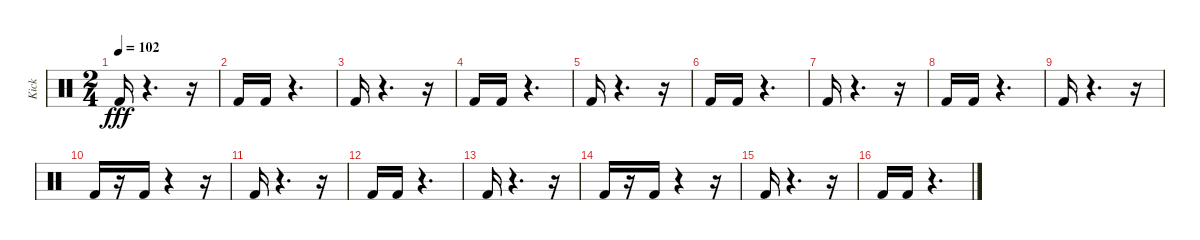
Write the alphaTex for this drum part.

\track ("Kick" "Kick") {instrument percussion}
\staff {score}
\articulation defaults
\ts (2 4)
\tempo 102
\clef neutral
\ks c "Kick (hit) 2".16{dy fff}
r.4{d} r.16 |
"Kick (hit) 2".16 "Kick (hit) 2".16 r.4{d} |
"Kick (hit) 2".16 r.4{d} r.16 |
"Kick (hit) 2".16 "Kick (hit) 2".16 r.4{d} |
"Kick (hit) 2".16 r.4{d} r.16 |
"Kick (hit) 2".16 "Kick (hit) 2".16 r.4{d} |
"Kick (hit) 2".16 r.4{d} r.16 |
"Kick (hit) 2".16 "Kick (hit) 2".16 r.4{d} |
"Kick (hit) 2".16 r.4{d} r.16 |
"Kick (hit) 2".16 r.16 "Kick (hit) 2".16 r.4 r.16 |
"Kick (hit) 2".16 r.4{d} r.16 |
"Kick (hit) 2".16 "Kick (hit) 2".16 r.4{d} |
"Kick (hit) 2".16 r.4{d} r.16 |
"Kick (hit) 2".16 r.16 "Kick (hit) 2".16 r.4 r.16 |
"Kick (hit) 2".16 r.4{d} r.16 |
"Kick (hit) 2".16 "Kick (hit) 2".16 r.4{d}
